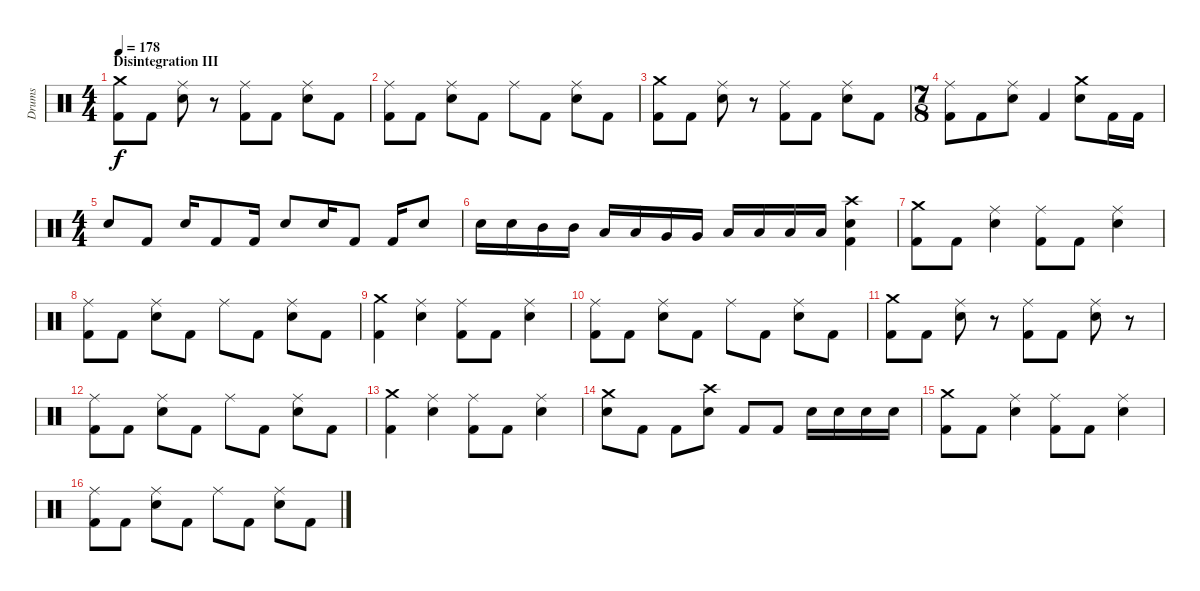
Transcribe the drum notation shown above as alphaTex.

\track ("Drums" "Drums") {instrument percussion}
\staff {score}
\articulation defaults
\ts (4 4)
\section ("" "Disintegration III")
\tempo 178
\clef neutral
\ks c
("Crash medium (hit)" "Kick (hit) 2").8{dy f} "Kick (hit) 2".8 ("Ride (middle)" "Electric Snare (hit)").8 r.8 ("Ride (middle)" "Kick (hit) 2").8 "Kick (hit) 2".8 ("Ride (middle)" "Electric Snare (hit)").8 "Kick (hit) 2".8 |
("Ride (middle)" "Kick (hit) 2").8 "Kick (hit) 2".8 ("Ride (middle)" "Electric Snare (hit)").8 "Kick (hit) 2".8 "Ride (middle)".8 "Kick (hit) 2".8 ("Ride (middle)" "Electric Snare (hit)").8 "Kick (hit) 2".8 |
("Crash medium (hit)" "Kick (hit) 2").8 "Kick (hit) 2".8 ("Ride (middle)" "Electric Snare (hit)").8 r.8 ("Ride (middle)" "Kick (hit) 2").8 "Kick (hit) 2".8 ("Ride (middle)" "Electric Snare (hit)").8 "Kick (hit) 2".8 |
\ts (7 8)
("Ride (middle)" "Kick (hit) 2").8 "Kick (hit) 2".8 ("Ride (middle)" "Electric Snare (hit)").8 "Kick (hit) 2".4 ("Crash medium (hit)" "Electric Snare (hit)").8 "Kick (hit) 2".16 "Kick (hit) 2".16 |
\ts (4 4)
"Electric Snare (hit)".8 "Kick (hit) 2".8 "Electric Snare (hit)".16 "Kick (hit) 2".8 "Kick (hit) 2".16 "Electric Snare (hit)".8 "Electric Snare (hit)".16 "Kick (hit) 2".8 "Kick (hit) 2".16 "Electric Snare (hit)".8 |
"Electric Snare (hit)".16 "Electric Snare (hit)".16 "Mid Tom (hit)".16 "Mid Tom (hit)".16 "Low Tom (hit)".16 "Low Tom (hit)".16 "Very Low Tom (hit)".16 "Very Low Tom (hit)".16 "Low Floor Tom (hit)".16 "Low Floor Tom (hit)".16 "Low Floor Tom (hit)".16 "Low Floor Tom (hit)".16 ("Crash high (hit)" "Electric Snare (hit)" "Kick (hit) 2").4 |
\section ("" "")
("Crash medium (hit)" "Kick (hit) 2").8 "Kick (hit) 2".8 ("Ride (middle)" "Electric Snare (hit)").4 ("Ride (middle)" "Kick (hit) 2").8 "Kick (hit) 2".8 ("Ride (middle)" "Electric Snare (hit)").4 |
("Ride (middle)" "Kick (hit) 2").8 "Kick (hit) 2".8 ("Ride (middle)" "Electric Snare (hit)").8 "Kick (hit) 2".8 "Ride (middle)".8 "Kick (hit) 2".8 ("Ride (middle)" "Electric Snare (hit)").8 "Kick (hit) 2".8 |
("Crash medium (hit)" "Kick (hit) 2").4 ("Ride (middle)" "Electric Snare (hit)").4 ("Ride (middle)" "Kick (hit) 2").8 "Kick (hit) 2".8 ("Ride (middle)" "Electric Snare (hit)").4 |
("Ride (middle)" "Kick (hit) 2").8 "Kick (hit) 2".8 ("Ride (middle)" "Electric Snare (hit)").8 "Kick (hit) 2".8 "Ride (middle)".8 "Kick (hit) 2".8 ("Ride (middle)" "Electric Snare (hit)").8 "Kick (hit) 2".8 |
("Crash medium (hit)" "Kick (hit) 2").8 "Kick (hit) 2".8 ("Ride (middle)" "Electric Snare (hit)").8 r.8 ("Ride (middle)" "Kick (hit) 2").8 "Kick (hit) 2".8 ("Ride (middle)" "Electric Snare (hit)").8 r.8 |
("Ride (middle)" "Kick (hit) 2").8 "Kick (hit) 2".8 ("Ride (middle)" "Electric Snare (hit)").8 "Kick (hit) 2".8 "Ride (middle)".8 "Kick (hit) 2".8 ("Ride (middle)" "Electric Snare (hit)").8 "Kick (hit) 2".8 |
("Crash medium (hit)" "Kick (hit) 2").4 ("Ride (middle)" "Electric Snare (hit)").4 ("Ride (middle)" "Kick (hit) 2").8 "Kick (hit) 2".8 ("Ride (middle)" "Electric Snare (hit)").4 |
("Crash medium (hit)" "Electric Snare (hit)").8 "Kick (hit) 2".8 "Kick (hit) 2".8 ("Crash high (hit)" "Electric Snare (hit)").8 "Kick (hit) 2".8 "Kick (hit) 2".8 "Electric Snare (hit)".16 "Electric Snare (hit)".16 "Electric Snare (hit)".16 "Electric Snare (hit)".16 |
("Crash medium (hit)" "Kick (hit) 2").8 "Kick (hit) 2".8 ("Ride (middle)" "Electric Snare (hit)").4 ("Ride (middle)" "Kick (hit) 2").8 "Kick (hit) 2".8 ("Ride (middle)" "Electric Snare (hit)").4 |
("Ride (middle)" "Kick (hit) 2").8 "Kick (hit) 2".8 ("Ride (middle)" "Electric Snare (hit)").8 "Kick (hit) 2".8 "Ride (middle)".8 "Kick (hit) 2".8 ("Ride (middle)" "Electric Snare (hit)").8 "Kick (hit) 2".8
